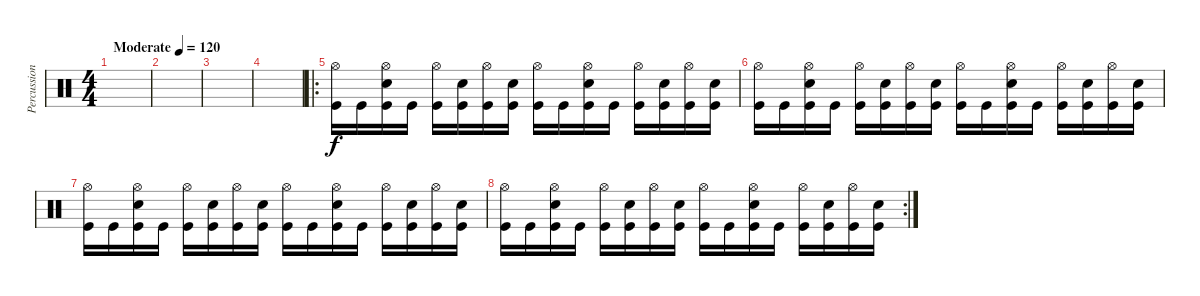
\track ("Percussion" "Percussion") {instrument percussion}
\staff {score}
\articulation defaults
\ts (4 4)
\tempo (120 "Moderate")
\clef neutral
\ks c
|
|
|
|
\ro
("Hi-Hat (open)" "Kick (hit)").16 "Kick (hit)".16 ("Hi-Hat (open)" "Snare (hit) 2" "Kick (hit)").16 "Kick (hit)".16 ("Hi-Hat (open)" "Kick (hit)").16 ("Snare (hit) 2" "Kick (hit)").16 ("Hi-Hat (open)" "Kick (hit)").16 ("Snare (hit) 2" "Kick (hit)").16 ("Hi-Hat (open)" "Kick (hit)").16 "Kick (hit)".16 ("Hi-Hat (open)" "Snare (hit) 2" "Kick (hit)").16 "Kick (hit)".16 ("Hi-Hat (open)" "Kick (hit)").16 ("Snare (hit) 2" "Kick (hit)").16 ("Hi-Hat (open)" "Kick (hit)").16 ("Snare (hit) 2" "Kick (hit)").16 |
("Hi-Hat (open)" "Kick (hit)").16 "Kick (hit)".16 ("Hi-Hat (open)" "Snare (hit) 2" "Kick (hit)").16 "Kick (hit)".16 ("Hi-Hat (open)" "Kick (hit)").16 ("Snare (hit) 2" "Kick (hit)").16 ("Hi-Hat (open)" "Kick (hit)").16 ("Snare (hit) 2" "Kick (hit)").16 ("Hi-Hat (open)" "Kick (hit)").16 "Kick (hit)".16 ("Hi-Hat (open)" "Snare (hit) 2" "Kick (hit)").16 "Kick (hit)".16 ("Hi-Hat (open)" "Kick (hit)").16 ("Snare (hit) 2" "Kick (hit)").16 ("Hi-Hat (open)" "Kick (hit)").16 ("Snare (hit) 2" "Kick (hit)").16 |
("Hi-Hat (open)" "Kick (hit)").16 "Kick (hit)".16 ("Hi-Hat (open)" "Snare (hit) 2" "Kick (hit)").16 "Kick (hit)".16 ("Hi-Hat (open)" "Kick (hit)").16 ("Snare (hit) 2" "Kick (hit)").16 ("Hi-Hat (open)" "Kick (hit)").16 ("Snare (hit) 2" "Kick (hit)").16 ("Hi-Hat (open)" "Kick (hit)").16 "Kick (hit)".16 ("Hi-Hat (open)" "Snare (hit) 2" "Kick (hit)").16 "Kick (hit)".16 ("Hi-Hat (open)" "Kick (hit)").16 ("Snare (hit) 2" "Kick (hit)").16 ("Hi-Hat (open)" "Kick (hit)").16 ("Snare (hit) 2" "Kick (hit)").16 |
\rc 2
("Hi-Hat (open)" "Kick (hit)").16 "Kick (hit)".16 ("Hi-Hat (open)" "Snare (hit) 2" "Kick (hit)").16 "Kick (hit)".16 ("Hi-Hat (open)" "Kick (hit)").16 ("Snare (hit) 2" "Kick (hit)").16 ("Hi-Hat (open)" "Kick (hit)").16 ("Snare (hit) 2" "Kick (hit)").16 ("Hi-Hat (open)" "Kick (hit)").16 "Kick (hit)".16 ("Hi-Hat (open)" "Snare (hit) 2" "Kick (hit)").16 "Kick (hit)".16 ("Hi-Hat (open)" "Kick (hit)").16 ("Snare (hit) 2" "Kick (hit)").16 ("Hi-Hat (open)" "Kick (hit)").16 ("Snare (hit) 2" "Kick (hit)").16
